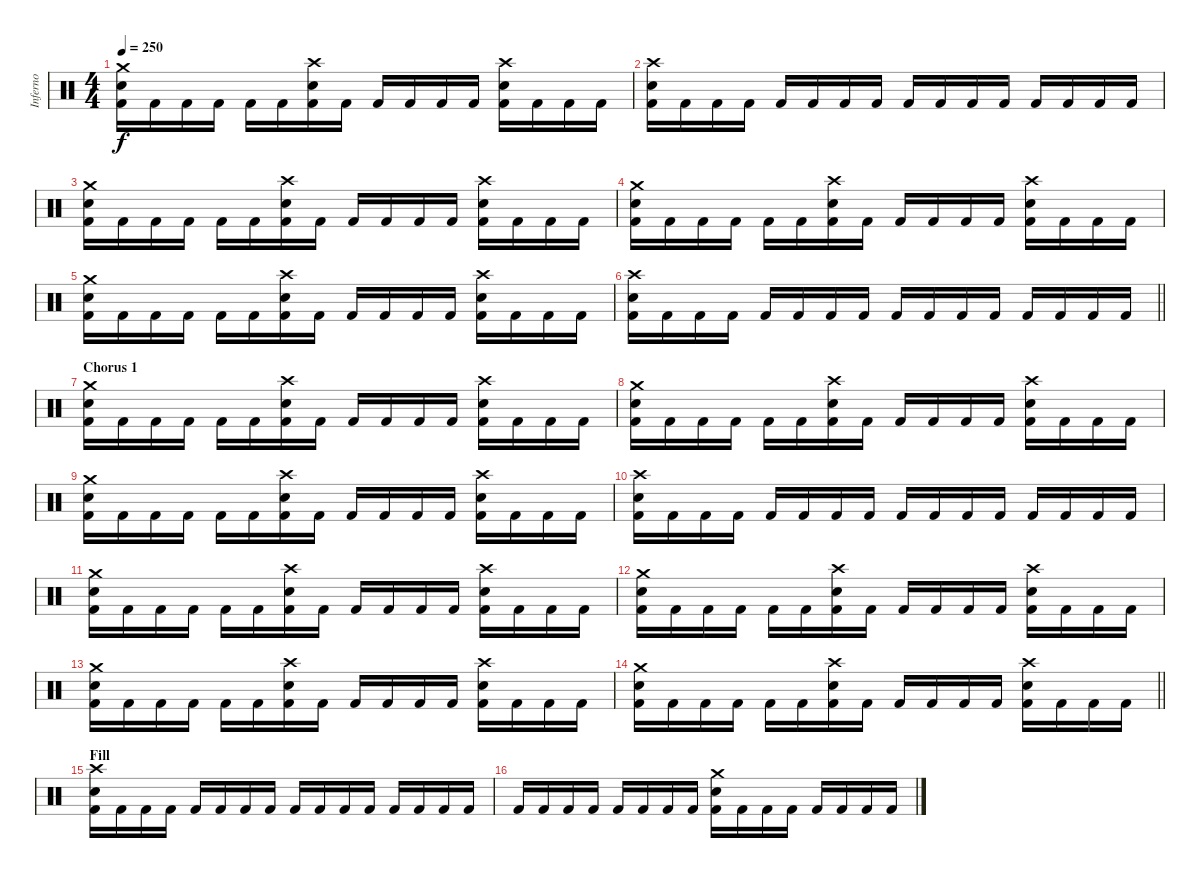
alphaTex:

\track ("Inferno" "Inferno") {instrument percussion}
\staff {score}
\articulation defaults
\ts (4 4)
\tempo 250
\clef neutral
\ks c
("Crash medium (hit)" "Electric Snare (hit)" "Kick (hit) 2").16{dy f} "Kick (hit) 2".16 "Kick (hit) 2".16 "Kick (hit) 2".16 "Kick (hit) 2".16 "Kick (hit) 2".16 ("Crash high (hit)" "Electric Snare (hit)" "Kick (hit) 2").16 "Kick (hit) 2".16 "Kick (hit) 2".16 "Kick (hit) 2".16 "Kick (hit) 2".16 "Kick (hit) 2".16 ("Crash high (hit)" "Electric Snare (hit)" "Kick (hit) 2").16 "Kick (hit) 2".16 "Kick (hit) 2".16 "Kick (hit) 2".16 |
("Crash high (hit)" "Electric Snare (hit)" "Kick (hit) 2").16 "Kick (hit) 2".16 "Kick (hit) 2".16 "Kick (hit) 2".16 "Kick (hit) 2".16 "Kick (hit) 2".16 "Kick (hit) 2".16 "Kick (hit) 2".16 "Kick (hit) 2".16 "Kick (hit) 2".16 "Kick (hit) 2".16 "Kick (hit) 2".16 "Kick (hit) 2".16 "Kick (hit) 2".16 "Kick (hit) 2".16 "Kick (hit) 2".16 |
("Crash medium (hit)" "Electric Snare (hit)" "Kick (hit) 2").16 "Kick (hit) 2".16 "Kick (hit) 2".16 "Kick (hit) 2".16 "Kick (hit) 2".16 "Kick (hit) 2".16 ("Crash high (hit)" "Electric Snare (hit)" "Kick (hit) 2").16 "Kick (hit) 2".16 "Kick (hit) 2".16 "Kick (hit) 2".16 "Kick (hit) 2".16 "Kick (hit) 2".16 ("Crash high (hit)" "Electric Snare (hit)" "Kick (hit) 2").16 "Kick (hit) 2".16 "Kick (hit) 2".16 "Kick (hit) 2".16 |
("Crash medium (hit)" "Electric Snare (hit)" "Kick (hit) 2").16 "Kick (hit) 2".16 "Kick (hit) 2".16 "Kick (hit) 2".16 "Kick (hit) 2".16 "Kick (hit) 2".16 ("Crash high (hit)" "Electric Snare (hit)" "Kick (hit) 2").16 "Kick (hit) 2".16 "Kick (hit) 2".16 "Kick (hit) 2".16 "Kick (hit) 2".16 "Kick (hit) 2".16 ("Crash high (hit)" "Electric Snare (hit)" "Kick (hit) 2").16 "Kick (hit) 2".16 "Kick (hit) 2".16 "Kick (hit) 2".16 |
("Crash medium (hit)" "Electric Snare (hit)" "Kick (hit) 2").16 "Kick (hit) 2".16 "Kick (hit) 2".16 "Kick (hit) 2".16 "Kick (hit) 2".16 "Kick (hit) 2".16 ("Crash high (hit)" "Electric Snare (hit)" "Kick (hit) 2").16 "Kick (hit) 2".16 "Kick (hit) 2".16 "Kick (hit) 2".16 "Kick (hit) 2".16 "Kick (hit) 2".16 ("Crash high (hit)" "Electric Snare (hit)" "Kick (hit) 2").16 "Kick (hit) 2".16 "Kick (hit) 2".16 "Kick (hit) 2".16 |
\barLineRight lightlight
("Crash high (hit)" "Electric Snare (hit)" "Kick (hit) 2").16 "Kick (hit) 2".16 "Kick (hit) 2".16 "Kick (hit) 2".16 "Kick (hit) 2".16 "Kick (hit) 2".16 "Kick (hit) 2".16 "Kick (hit) 2".16 "Kick (hit) 2".16 "Kick (hit) 2".16 "Kick (hit) 2".16 "Kick (hit) 2".16 "Kick (hit) 2".16 "Kick (hit) 2".16 "Kick (hit) 2".16 "Kick (hit) 2".16 |
\section ("" "Chorus 1")
("Crash medium (hit)" "Electric Snare (hit)" "Kick (hit) 2").16 "Kick (hit) 2".16 "Kick (hit) 2".16 "Kick (hit) 2".16 "Kick (hit) 2".16 "Kick (hit) 2".16 ("Crash high (hit)" "Electric Snare (hit)" "Kick (hit) 2").16 "Kick (hit) 2".16 "Kick (hit) 2".16 "Kick (hit) 2".16 "Kick (hit) 2".16 "Kick (hit) 2".16 ("Crash high (hit)" "Electric Snare (hit)" "Kick (hit) 2").16 "Kick (hit) 2".16 "Kick (hit) 2".16 "Kick (hit) 2".16 |
("Crash medium (hit)" "Electric Snare (hit)" "Kick (hit) 2").16 "Kick (hit) 2".16 "Kick (hit) 2".16 "Kick (hit) 2".16 "Kick (hit) 2".16 "Kick (hit) 2".16 ("Crash high (hit)" "Electric Snare (hit)" "Kick (hit) 2").16 "Kick (hit) 2".16 "Kick (hit) 2".16 "Kick (hit) 2".16 "Kick (hit) 2".16 "Kick (hit) 2".16 ("Crash high (hit)" "Electric Snare (hit)" "Kick (hit) 2").16 "Kick (hit) 2".16 "Kick (hit) 2".16 "Kick (hit) 2".16 |
("Crash medium (hit)" "Electric Snare (hit)" "Kick (hit) 2").16 "Kick (hit) 2".16 "Kick (hit) 2".16 "Kick (hit) 2".16 "Kick (hit) 2".16 "Kick (hit) 2".16 ("Crash high (hit)" "Electric Snare (hit)" "Kick (hit) 2").16 "Kick (hit) 2".16 "Kick (hit) 2".16 "Kick (hit) 2".16 "Kick (hit) 2".16 "Kick (hit) 2".16 ("Crash high (hit)" "Electric Snare (hit)" "Kick (hit) 2").16 "Kick (hit) 2".16 "Kick (hit) 2".16 "Kick (hit) 2".16 |
("Crash high (hit)" "Electric Snare (hit)" "Kick (hit) 2").16 "Kick (hit) 2".16 "Kick (hit) 2".16 "Kick (hit) 2".16 "Kick (hit) 2".16 "Kick (hit) 2".16 "Kick (hit) 2".16 "Kick (hit) 2".16 "Kick (hit) 2".16 "Kick (hit) 2".16 "Kick (hit) 2".16 "Kick (hit) 2".16 "Kick (hit) 2".16 "Kick (hit) 2".16 "Kick (hit) 2".16 "Kick (hit) 2".16 |
("Crash medium (hit)" "Electric Snare (hit)" "Kick (hit) 2").16 "Kick (hit) 2".16 "Kick (hit) 2".16 "Kick (hit) 2".16 "Kick (hit) 2".16 "Kick (hit) 2".16 ("Crash high (hit)" "Electric Snare (hit)" "Kick (hit) 2").16 "Kick (hit) 2".16 "Kick (hit) 2".16 "Kick (hit) 2".16 "Kick (hit) 2".16 "Kick (hit) 2".16 ("Crash high (hit)" "Electric Snare (hit)" "Kick (hit) 2").16 "Kick (hit) 2".16 "Kick (hit) 2".16 "Kick (hit) 2".16 |
("Crash medium (hit)" "Electric Snare (hit)" "Kick (hit) 2").16 "Kick (hit) 2".16 "Kick (hit) 2".16 "Kick (hit) 2".16 "Kick (hit) 2".16 "Kick (hit) 2".16 ("Crash high (hit)" "Electric Snare (hit)" "Kick (hit) 2").16 "Kick (hit) 2".16 "Kick (hit) 2".16 "Kick (hit) 2".16 "Kick (hit) 2".16 "Kick (hit) 2".16 ("Crash high (hit)" "Electric Snare (hit)" "Kick (hit) 2").16 "Kick (hit) 2".16 "Kick (hit) 2".16 "Kick (hit) 2".16 |
("Crash medium (hit)" "Electric Snare (hit)" "Kick (hit) 2").16 "Kick (hit) 2".16 "Kick (hit) 2".16 "Kick (hit) 2".16 "Kick (hit) 2".16 "Kick (hit) 2".16 ("Crash high (hit)" "Electric Snare (hit)" "Kick (hit) 2").16 "Kick (hit) 2".16 "Kick (hit) 2".16 "Kick (hit) 2".16 "Kick (hit) 2".16 "Kick (hit) 2".16 ("Crash high (hit)" "Electric Snare (hit)" "Kick (hit) 2").16 "Kick (hit) 2".16 "Kick (hit) 2".16 "Kick (hit) 2".16 |
\barLineRight lightlight
("Crash medium (hit)" "Electric Snare (hit)" "Kick (hit) 2").16 "Kick (hit) 2".16 "Kick (hit) 2".16 "Kick (hit) 2".16 "Kick (hit) 2".16 "Kick (hit) 2".16 ("Crash high (hit)" "Electric Snare (hit)" "Kick (hit) 2").16 "Kick (hit) 2".16 "Kick (hit) 2".16 "Kick (hit) 2".16 "Kick (hit) 2".16 "Kick (hit) 2".16 ("Crash high (hit)" "Electric Snare (hit)" "Kick (hit) 2").16 "Kick (hit) 2".16 "Kick (hit) 2".16 "Kick (hit) 2".16 |
\section ("" "Fill")
("Crash high (hit)" "Electric Snare (hit)" "Kick (hit) 2").16 "Kick (hit) 2".16 "Kick (hit) 2".16 "Kick (hit) 2".16 "Kick (hit) 2".16 "Kick (hit) 2".16 "Kick (hit) 2".16 "Kick (hit) 2".16 "Kick (hit) 2".16 "Kick (hit) 2".16 "Kick (hit) 2".16 "Kick (hit) 2".16 "Kick (hit) 2".16 "Kick (hit) 2".16 "Kick (hit) 2".16 "Kick (hit) 2".16 |
"Kick (hit) 2".16 "Kick (hit) 2".16 "Kick (hit) 2".16 "Kick (hit) 2".16 "Kick (hit) 2".16 "Kick (hit) 2".16 "Kick (hit) 2".16 "Kick (hit) 2".16 ("Crash medium (hit)" "Electric Snare (hit)" "Kick (hit) 2").16 "Kick (hit) 2".16 "Kick (hit) 2".16 "Kick (hit) 2".16 "Kick (hit) 2".16 "Kick (hit) 2".16 "Kick (hit) 2".16 "Kick (hit) 2".16
